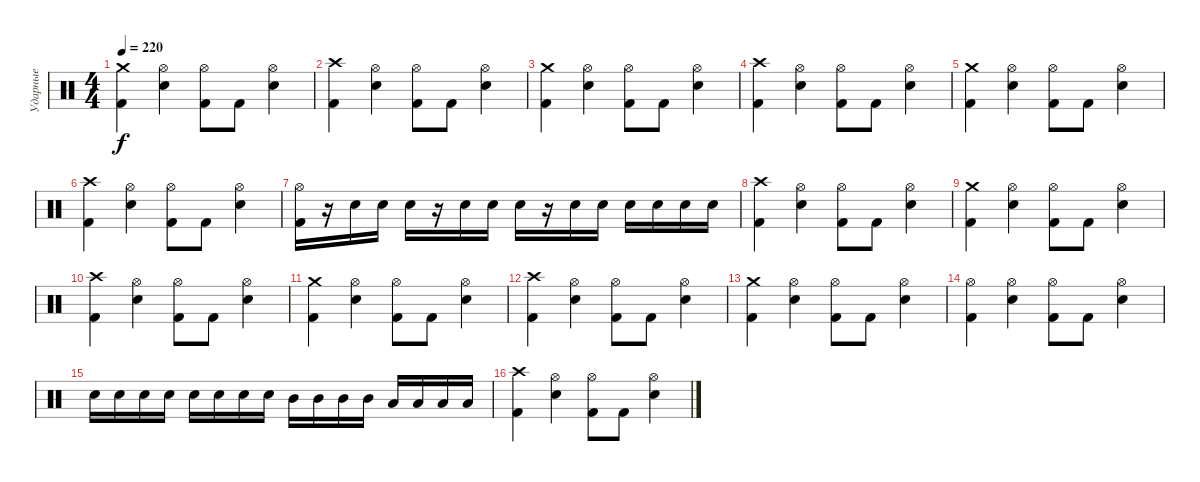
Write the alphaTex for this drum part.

\track ("Ударные" "Ударные") {instrument percussion}
\staff {score}
\articulation defaults
\ts (4 4)
\tempo 220
\clef neutral
\ks c
("Crash medium (hit)" "Kick (hit) 2").4{dy f} ("Hi-Hat (open)" "Electric Snare (hit)").4 ("Hi-Hat (open)" "Kick (hit) 2").8 "Kick (hit) 2".8 ("Hi-Hat (open)" "Electric Snare (hit)").4 |
("Crash high (hit)" "Kick (hit) 2").4 ("Hi-Hat (open)" "Electric Snare (hit)").4 ("Hi-Hat (open)" "Kick (hit) 2").8 "Kick (hit) 2".8 ("Hi-Hat (open)" "Electric Snare (hit)").4 |
("Crash medium (hit)" "Kick (hit) 2").4 ("Hi-Hat (open)" "Electric Snare (hit)").4 ("Hi-Hat (open)" "Kick (hit) 2").8 "Kick (hit) 2".8 ("Hi-Hat (open)" "Electric Snare (hit)").4 |
("Crash high (hit)" "Kick (hit) 2").4 ("Hi-Hat (open)" "Electric Snare (hit)").4 ("Hi-Hat (open)" "Kick (hit) 2").8 "Kick (hit) 2".8 ("Hi-Hat (open)" "Electric Snare (hit)").4 |
("Crash medium (hit)" "Kick (hit) 2").4 ("Hi-Hat (open)" "Electric Snare (hit)").4 ("Hi-Hat (open)" "Kick (hit) 2").8 "Kick (hit) 2".8 ("Hi-Hat (open)" "Electric Snare (hit)").4 |
("Crash high (hit)" "Kick (hit) 2").4 ("Hi-Hat (open)" "Electric Snare (hit)").4 ("Hi-Hat (open)" "Kick (hit) 2").8 "Kick (hit) 2".8 ("Hi-Hat (open)" "Electric Snare (hit)").4 |
("Hi-Hat (open)" "Kick (hit) 2").16 r.16 "Electric Snare (hit)".16 "Electric Snare (hit)".16 "Electric Snare (hit)".16 r.16 "Electric Snare (hit)".16 "Electric Snare (hit)".16 "Electric Snare (hit)".16 r.16 "Electric Snare (hit)".16 "Electric Snare (hit)".16 "Electric Snare (hit)".16 "Electric Snare (hit)".16 "Electric Snare (hit)".16 "Electric Snare (hit)".16 |
("Crash high (hit)" "Kick (hit) 2").4 ("Hi-Hat (open)" "Electric Snare (hit)").4 ("Hi-Hat (open)" "Kick (hit) 2").8 "Kick (hit) 2".8 ("Hi-Hat (open)" "Electric Snare (hit)").4 |
("Crash medium (hit)" "Kick (hit) 2").4 ("Hi-Hat (open)" "Electric Snare (hit)").4 ("Hi-Hat (open)" "Kick (hit) 2").8 "Kick (hit) 2".8 ("Hi-Hat (open)" "Electric Snare (hit)").4 |
("Crash high (hit)" "Kick (hit) 2").4 ("Hi-Hat (open)" "Electric Snare (hit)").4 ("Hi-Hat (open)" "Kick (hit) 2").8 "Kick (hit) 2".8 ("Hi-Hat (open)" "Electric Snare (hit)").4 |
("Crash medium (hit)" "Kick (hit) 2").4 ("Hi-Hat (open)" "Electric Snare (hit)").4 ("Hi-Hat (open)" "Kick (hit) 2").8 "Kick (hit) 2".8 ("Hi-Hat (open)" "Electric Snare (hit)").4 |
("Crash high (hit)" "Kick (hit) 2").4 ("Hi-Hat (open)" "Electric Snare (hit)").4 ("Hi-Hat (open)" "Kick (hit) 2").8 "Kick (hit) 2".8 ("Hi-Hat (open)" "Electric Snare (hit)").4 |
("Crash medium (hit)" "Kick (hit) 2").4 ("Hi-Hat (open)" "Electric Snare (hit)").4 ("Hi-Hat (open)" "Kick (hit) 2").8 "Kick (hit) 2".8 ("Hi-Hat (open)" "Electric Snare (hit)").4 |
("Hi-Hat (open)" "Kick (hit) 2").4 ("Hi-Hat (open)" "Electric Snare (hit)").4 ("Hi-Hat (open)" "Kick (hit) 2").8 "Kick (hit) 2".8 ("Hi-Hat (open)" "Electric Snare (hit)").4 |
"Electric Snare (hit)".16 "Electric Snare (hit)".16 "Electric Snare (hit)".16 "Electric Snare (hit)".16 "Electric Snare (hit)".16 "Electric Snare (hit)".16 "Electric Snare (hit)".16 "Electric Snare (hit)".16 "Mid Tom (hit)".16 "Mid Tom (hit)".16 "Mid Tom (hit)".16 "Mid Tom (hit)".16 "Low Tom (hit)".16 "Low Tom (hit)".16 "Low Tom (hit)".16 "Low Tom (hit)".16 |
("Crash high (hit)" "Kick (hit) 2").4 ("Hi-Hat (open)" "Electric Snare (hit)").4 ("Hi-Hat (open)" "Kick (hit) 2").8 "Kick (hit) 2".8 ("Hi-Hat (open)" "Electric Snare (hit)").4
